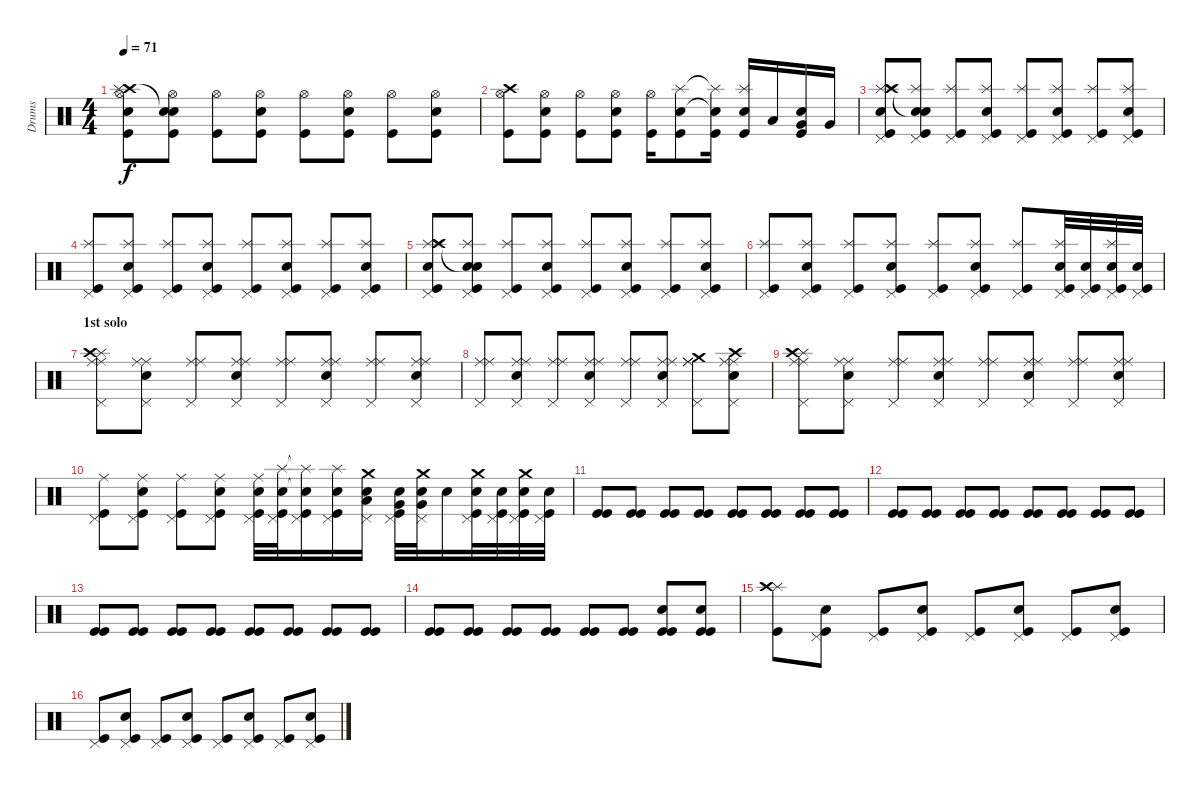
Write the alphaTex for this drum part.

\track ("Drums" "Drums") {instrument percussion}
\staff {score}
\articulation defaults
\ts (4 4)
\tempo 71
\clef neutral
\ks c
("Snare (hit) 2" "Hi-Hat (open)" "Kick (hit)" "Crash high (hit)" "Splash (hit)").8{dy f} ("Snare (hit) 2" "Hi-Hat (open)" "Kick (hit)" "Snare (hit)"{t}).8 ("Hi-Hat (open)" "Kick (hit)").8 ("Electric Snare (hit)" "Hi-Hat (open)" "Kick (hit)").8 ("Hi-Hat (open)" "Kick (hit)").8 ("Snare (hit) 2" "Hi-Hat (open)" "Kick (hit)").8 ("Hi-Hat (open)" "Kick (hit)").8 ("Electric Snare (hit)" "Hi-Hat (open)" "Kick (hit)").8 |
("Hi-Hat (open)" "Kick (hit)" "Crash high (hit)").8 ("Snare (hit) 2" "Hi-Hat (open)" "Kick (hit)").8 ("Hi-Hat (open)" "Kick (hit)").8 ("Electric Snare (hit)" "Hi-Hat (open)" "Kick (hit)").8 ("Hi-Hat (open)" "Kick (hit)").16 ("Snare (hit) 2" "Splash (hit)" "Kick (hit)").8 ("Snare (hit) 2"{t} "Splash (hit)"{t} "Kick (hit)").16 ("Electric Snare (hit)" "Splash (hit)" "Kick (hit)").16 "Low Floor Tom (hit)".16 ("Electric Snare (hit)" "Kick (hit)" "Very Low Tom (hit)").16 "Very Low Tom (hit)".16 |
("Snare (hit) 2" "Splash (hit)" "Kick (hit)" "Pedal Hi-Hat (hit)" "Crash high (hit)" "Splash (hit)").8 ("Snare (hit) 2" "Splash (hit)" "Kick (hit)" "Pedal Hi-Hat (hit)" "Snare (hit)"{t}).8 ("Splash (hit)" "Kick (hit)" "Pedal Hi-Hat (hit)").8 ("Electric Snare (hit)" "Splash (hit)" "Kick (hit)" "Pedal Hi-Hat (hit)").8 ("Splash (hit)" "Kick (hit)" "Pedal Hi-Hat (hit)").8 ("Snare (hit) 2" "Splash (hit)" "Kick (hit)" "Pedal Hi-Hat (hit)").8 ("Splash (hit)" "Kick (hit)" "Pedal Hi-Hat (hit)").8 ("Electric Snare (hit)" "Splash (hit)" "Kick (hit)" "Pedal Hi-Hat (hit)").8 |
("Splash (hit)" "Kick (hit)" "Pedal Hi-Hat (hit)").8 ("Snare (hit) 2" "Splash (hit)" "Kick (hit)" "Pedal Hi-Hat (hit)").8 ("Splash (hit)" "Kick (hit)" "Pedal Hi-Hat (hit)").8 ("Electric Snare (hit)" "Splash (hit)" "Kick (hit)" "Pedal Hi-Hat (hit)").8 ("Splash (hit)" "Kick (hit)" "Pedal Hi-Hat (hit)").8 ("Snare (hit) 2" "Splash (hit)" "Kick (hit)" "Pedal Hi-Hat (hit)").8 ("Splash (hit)" "Kick (hit)" "Pedal Hi-Hat (hit)").8 ("Electric Snare (hit)" "Splash (hit)" "Kick (hit)" "Pedal Hi-Hat (hit)").8 |
("Snare (hit) 2" "Splash (hit)" "Kick (hit)" "Pedal Hi-Hat (hit)" "Crash high (hit)" "Splash (hit)").8 ("Snare (hit) 2" "Splash (hit)" "Kick (hit)" "Pedal Hi-Hat (hit)" "Snare (hit)"{t}).8 ("Splash (hit)" "Kick (hit)" "Pedal Hi-Hat (hit)").8 ("Electric Snare (hit)" "Splash (hit)" "Kick (hit)" "Pedal Hi-Hat (hit)").8 ("Splash (hit)" "Kick (hit)" "Pedal Hi-Hat (hit)").8 ("Snare (hit) 2" "Splash (hit)" "Kick (hit)" "Pedal Hi-Hat (hit)").8 ("Splash (hit)" "Kick (hit)" "Pedal Hi-Hat (hit)").8 ("Electric Snare (hit)" "Splash (hit)" "Kick (hit)" "Pedal Hi-Hat (hit)").8 |
("Splash (hit)" "Kick (hit)" "Pedal Hi-Hat (hit)").8 ("Snare (hit) 2" "Splash (hit)" "Kick (hit)" "Pedal Hi-Hat (hit)").8 ("Splash (hit)" "Kick (hit)" "Pedal Hi-Hat (hit)").8 ("Electric Snare (hit)" "Splash (hit)" "Kick (hit)" "Pedal Hi-Hat (hit)").8 ("Splash (hit)" "Kick (hit)" "Pedal Hi-Hat (hit)").8 ("Snare (hit) 2" "Splash (hit)" "Kick (hit)" "Pedal Hi-Hat (hit)").8 ("Splash (hit)" "Kick (hit)" "Pedal Hi-Hat (hit)").8 ("Electric Snare (hit)" "Splash (hit)" "Kick (hit)" "Pedal Hi-Hat (hit)").32 ("Electric Snare (hit)" "Kick (hit)" "Pedal Hi-Hat (hit)").32 ("Electric Snare (hit)" "Splash (hit)" "Kick (hit)" "Pedal Hi-Hat (hit)").32 ("Electric Snare (hit)" "Kick (hit)" "Pedal Hi-Hat (hit)").32 |
\section ("" "1st solo")
("Splash (hit)" "Crash high (hit)" "Ride (middle)" "Pedal Hi-Hat (hit)" "Ride (middle)").8 ("Snare (hit) 2" "Ride (middle)" "Pedal Hi-Hat (hit)" "Ride (middle)").8 ("Ride (middle)" "Pedal Hi-Hat (hit)" "Ride (middle)").8 ("Electric Snare (hit)" "Ride (middle)" "Pedal Hi-Hat (hit)" "Ride (middle)").8 ("Ride (middle)" "Pedal Hi-Hat (hit)" "Ride (middle)").8 ("Snare (hit) 2" "Ride (middle)" "Pedal Hi-Hat (hit)" "Ride (middle)").8 ("Ride (middle)" "Pedal Hi-Hat (hit)" "Ride (middle)").8 ("Electric Snare (hit)" "Ride (middle)" "Pedal Hi-Hat (hit)" "Ride (middle)").8 |
("Ride (middle)" "Pedal Hi-Hat (hit)" "Ride (middle)").8 ("Snare (hit) 2" "Ride (middle)" "Pedal Hi-Hat (hit)" "Ride (middle)").8 ("Ride (middle)" "Pedal Hi-Hat (hit)" "Ride (middle)").8 ("Electric Snare (hit)" "Ride (middle)" "Pedal Hi-Hat (hit)" "Ride (middle)").8 ("Ride (middle)" "Pedal Hi-Hat (hit)" "Ride (middle)").8 ("Snare (hit) 2" "Ride (middle)" "Pedal Hi-Hat (hit)" "Ride (middle)").8 ("Crash medium (hit)" "Ride (middle)" "Pedal Hi-Hat (hit)" "Ride (middle)").8 ("Crash high (hit)" "Electric Snare (hit)" "Ride (middle)" "Pedal Hi-Hat (hit)" "Ride (middle)").8 |
("Splash (hit)" "Crash high (hit)" "Ride (middle)" "Pedal Hi-Hat (hit)" "Ride (middle)").8 ("Snare (hit) 2" "Ride (middle)" "Pedal Hi-Hat (hit)" "Ride (middle)").8 ("Ride (middle)" "Pedal Hi-Hat (hit)" "Ride (middle)").8 ("Electric Snare (hit)" "Ride (middle)" "Pedal Hi-Hat (hit)" "Ride (middle)").8 ("Ride (middle)" "Pedal Hi-Hat (hit)" "Ride (middle)").8 ("Snare (hit) 2" "Ride (middle)" "Pedal Hi-Hat (hit)" "Ride (middle)").8 ("Ride (middle)" "Pedal Hi-Hat (hit)" "Ride (middle)").8 ("Electric Snare (hit)" "Ride (middle)" "Pedal Hi-Hat (hit)" "Ride (middle)").8 |
("Ride (middle)" "Kick (hit)" "Pedal Hi-Hat (hit)").8 ("Snare (hit) 2" "Ride (middle)" "Kick (hit)" "Pedal Hi-Hat (hit)").8 ("Ride (middle)" "Kick (hit)" "Pedal Hi-Hat (hit)").8 ("Electric Snare (hit)" "Ride (middle)" "Kick (hit)" "Pedal Hi-Hat (hit)").8 ("Electric Snare (hit)" "Ride (middle)" "Kick (hit)" "Pedal Hi-Hat (hit)").32 ("Snare (hit) 2" "Splash (hit)" "Kick (hit)" "Pedal Hi-Hat (hit)").32 ("Snare (hit) 2"{t} "Splash (hit)"{t} "Kick (hit)" "Pedal Hi-Hat (hit)").16 ("Electric Snare (hit)" "Splash (hit)" "Kick (hit)" "Pedal Hi-Hat (hit)").16 ("Electric Snare (hit)" "Crash medium (hit)" "Low Floor Tom (hit)" "Pedal Hi-Hat (hit)").16 ("Electric Snare (hit)" "Kick (hit)" "Very Low Tom (hit)" "Pedal Hi-Hat (hit)").32 ("Electric Snare (hit)" "Crash medium (hit)" "Very Low Tom (hit)" "Pedal Hi-Hat (hit)").32 "Electric Snare (hit)".16 ("Electric Snare (hit)" "Crash medium (hit)" "Kick (hit)" "Pedal Hi-Hat (hit)").32 ("Electric Snare (hit)" "Kick (hit)" "Pedal Hi-Hat (hit)").32 ("Electric Snare (hit)" "Crash medium (hit)" "Kick (hit)" "Pedal Hi-Hat (hit)").32 ("Electric Snare (hit)" "Kick (hit)" "Pedal Hi-Hat (hit)").32 |
("Kick (hit)" "Kick (hit)").8 ("Kick (hit)" "Kick (hit)").8 ("Kick (hit)" "Kick (hit)").8 ("Kick (hit)" "Kick (hit)").8 ("Kick (hit)" "Kick (hit)").8 ("Kick (hit)" "Kick (hit)").8 ("Kick (hit)" "Kick (hit)").8 ("Kick (hit)" "Kick (hit)").8 |
("Kick (hit)" "Kick (hit)").8 ("Kick (hit)" "Kick (hit)").8 ("Kick (hit)" "Kick (hit)").8 ("Kick (hit)" "Kick (hit)").8 ("Kick (hit)" "Kick (hit)").8 ("Kick (hit)" "Kick (hit)").8 ("Kick (hit)" "Kick (hit)").8 ("Kick (hit)" "Kick (hit)").8 |
("Kick (hit)" "Kick (hit)").8 ("Kick (hit)" "Kick (hit)").8 ("Kick (hit)" "Kick (hit)").8 ("Kick (hit)" "Kick (hit)").8 ("Kick (hit)" "Kick (hit)").8 ("Kick (hit)" "Kick (hit)").8 ("Kick (hit)" "Kick (hit)").8 ("Kick (hit)" "Kick (hit)").8 |
("Kick (hit)" "Kick (hit)").8 ("Kick (hit)" "Kick (hit)").8 ("Kick (hit)" "Kick (hit)").8 ("Kick (hit)" "Kick (hit)").8 ("Kick (hit)" "Kick (hit)").8 ("Kick (hit)" "Kick (hit)").8 ("Electric Snare (hit)" "Kick (hit)" "Kick (hit)").8 ("Electric Snare (hit)" "Kick (hit)" "Kick (hit)").8 |
("Kick (hit)" "Splash (hit)" "Crash high (hit)").8 ("Snare (hit) 2" "Kick (hit)" "Pedal Hi-Hat (hit)").8 ("Kick (hit)" "Pedal Hi-Hat (hit)").8 ("Electric Snare (hit)" "Kick (hit)" "Pedal Hi-Hat (hit)").8 ("Kick (hit)" "Pedal Hi-Hat (hit)").8 ("Snare (hit) 2" "Kick (hit)" "Pedal Hi-Hat (hit)").8 ("Kick (hit)" "Pedal Hi-Hat (hit)").8 ("Electric Snare (hit)" "Kick (hit)" "Pedal Hi-Hat (hit)").8 |
("Kick (hit)" "Pedal Hi-Hat (hit)").8 ("Snare (hit) 2" "Kick (hit)" "Pedal Hi-Hat (hit)").8 ("Kick (hit)" "Pedal Hi-Hat (hit)").8 ("Electric Snare (hit)" "Kick (hit)" "Pedal Hi-Hat (hit)").8 ("Kick (hit)" "Pedal Hi-Hat (hit)").8 ("Snare (hit) 2" "Kick (hit)" "Pedal Hi-Hat (hit)").8 ("Kick (hit)" "Pedal Hi-Hat (hit)").8 ("Electric Snare (hit)" "Kick (hit)" "Pedal Hi-Hat (hit)").8
